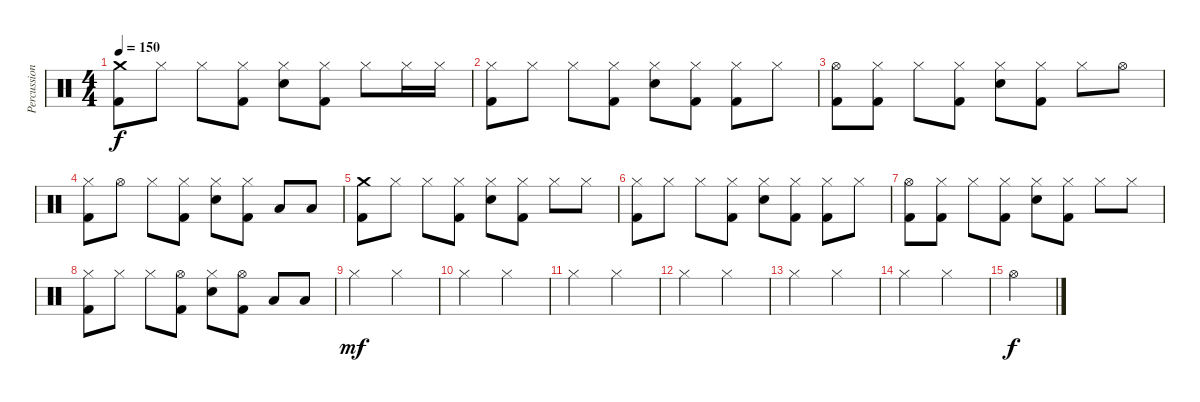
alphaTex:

\track ("Percussion" "Percussion") {instrument percussion}
\staff {score}
\articulation defaults
\ts (4 4)
\tempo 150
\clef neutral
\ks c
("Crash medium (hit)" "Kick (hit) 2").8{dy f} "Hi-Hat (closed)".8 "Hi-Hat (closed)".8 ("Hi-Hat (closed)" "Kick (hit) 2").8 ("Hi-Hat (closed)" "Electric Snare (hit)").8 ("Hi-Hat (closed)" "Kick (hit) 2").8 "Hi-Hat (closed)".8 "Hi-Hat (closed)".16 "Hi-Hat (closed)".16 |
("Hi-Hat (closed)" "Kick (hit) 2").8 "Hi-Hat (closed)".8 "Hi-Hat (closed)".8 ("Hi-Hat (closed)" "Kick (hit) 2").8 ("Hi-Hat (closed)" "Electric Snare (hit)").8 ("Hi-Hat (closed)" "Kick (hit) 2").8 ("Hi-Hat (closed)" "Kick (hit) 2").8 "Hi-Hat (closed)".8 |
("Hi-Hat (open)" "Kick (hit) 2").8 ("Hi-Hat (closed)" "Kick (hit) 2").8 "Hi-Hat (closed)".8 ("Hi-Hat (closed)" "Kick (hit) 2").8 ("Hi-Hat (closed)" "Electric Snare (hit)").8 ("Hi-Hat (closed)" "Kick (hit) 2").8 "Hi-Hat (closed)".8 "Hi-Hat (open)".8 |
("Hi-Hat (closed)" "Kick (hit) 2").8 "Hi-Hat (open)".8 "Hi-Hat (closed)".8 ("Hi-Hat (closed)" "Kick (hit) 2").8 ("Hi-Hat (closed)" "Electric Snare (hit)").8 ("Hi-Hat (closed)" "Kick (hit) 2").8 "Low Tom (hit)".8 "Low Tom (hit)".8 |
("Crash medium (hit)" "Kick (hit) 2").8 "Hi-Hat (closed)".8 "Hi-Hat (closed)".8 ("Hi-Hat (closed)" "Kick (hit) 2").8 ("Hi-Hat (closed)" "Electric Snare (hit)").8 ("Hi-Hat (closed)" "Kick (hit) 2").8 "Hi-Hat (closed)".8 "Hi-Hat (closed)".8 |
("Hi-Hat (closed)" "Kick (hit) 2").8 "Hi-Hat (closed)".8 "Hi-Hat (closed)".8 ("Hi-Hat (closed)" "Kick (hit) 2").8 ("Hi-Hat (closed)" "Electric Snare (hit)").8 ("Hi-Hat (closed)" "Kick (hit) 2").8 ("Hi-Hat (closed)" "Kick (hit) 2").8 "Hi-Hat (closed)".8 |
("Hi-Hat (open)" "Kick (hit) 2").8 ("Hi-Hat (closed)" "Kick (hit) 2").8 "Hi-Hat (closed)".8 ("Hi-Hat (closed)" "Kick (hit) 2").8 ("Hi-Hat (closed)" "Electric Snare (hit)").8 ("Hi-Hat (closed)" "Kick (hit) 2").8 "Hi-Hat (closed)".8 "Hi-Hat (closed)".8 |
("Hi-Hat (closed)" "Kick (hit) 2").8 "Hi-Hat (closed)".8 "Hi-Hat (closed)".8 ("Hi-Hat (open)" "Kick (hit) 2").8 ("Hi-Hat (closed)" "Electric Snare (hit)").8 ("Hi-Hat (open)" "Kick (hit) 2").8 "Low Tom (hit)".8 "Low Tom (hit)".8 |
"Hi-Hat (closed)".2{dy mf} "Hi-Hat (closed)".2 |
"Hi-Hat (closed)".2 "Hi-Hat (closed)".2 |
"Hi-Hat (closed)".2 "Hi-Hat (closed)".2 |
"Hi-Hat (closed)".2 "Hi-Hat (closed)".2 |
"Hi-Hat (closed)".2 "Hi-Hat (closed)".2 |
"Hi-Hat (closed)".2 "Hi-Hat (closed)".2 |
"Hi-Hat (open)".2{dy f}
